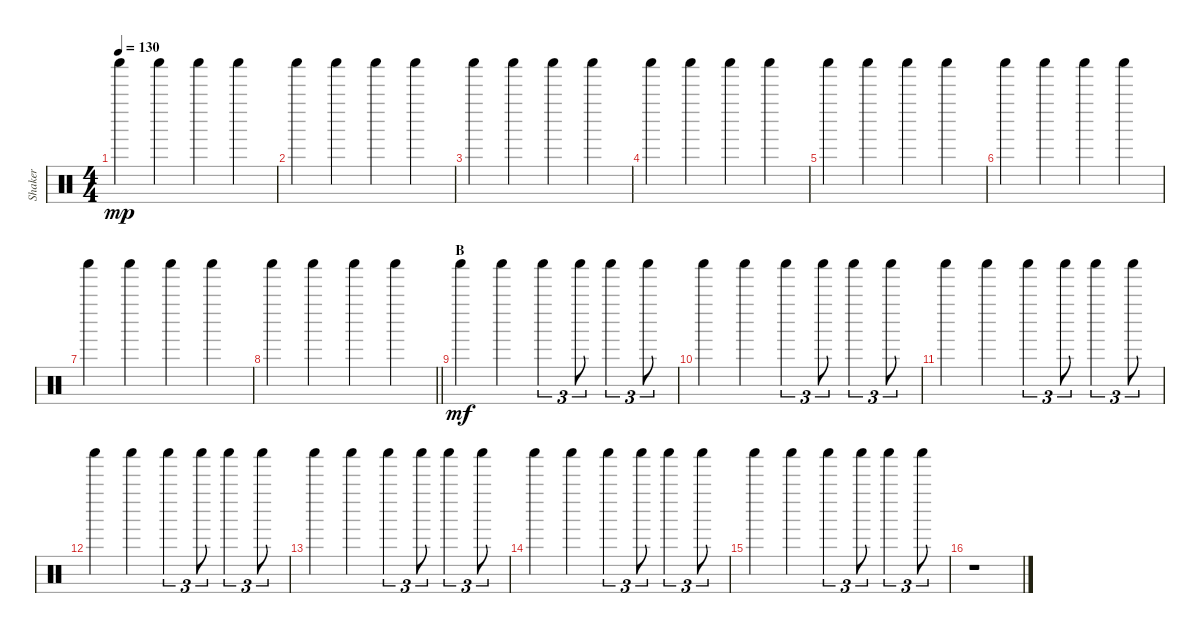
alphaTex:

\track ("Shaker" "Shaker") {instrument percussion}
\staff {score}
\articulation defaults
\ts (4 4)
\tempo 130
\clef neutral
\ks c "Shaker (hit)".4{dy mp} "Shaker (hit)".4 "Shaker (hit)".4 "Shaker (hit)".4
|
"Shaker (hit)".4 "Shaker (hit)".4 "Shaker (hit)".4 "Shaker (hit)".4 |
"Shaker (hit)".4 "Shaker (hit)".4 "Shaker (hit)".4 "Shaker (hit)".4 |
"Shaker (hit)".4 "Shaker (hit)".4 "Shaker (hit)".4 "Shaker (hit)".4 |
"Shaker (hit)".4 "Shaker (hit)".4 "Shaker (hit)".4 "Shaker (hit)".4 |
"Shaker (hit)".4 "Shaker (hit)".4 "Shaker (hit)".4 "Shaker (hit)".4 |
"Shaker (hit)".4 "Shaker (hit)".4 "Shaker (hit)".4 "Shaker (hit)".4 |
\barLineRight lightlight "Shaker (hit)".4 "Shaker (hit)".4 "Shaker (hit)".4 "Shaker (hit)".4
|
\section ("" "B")
"Shaker (hit)".4{dy mf} "Shaker (hit)".4 "Shaker (hit)".4{tu (3 2)} "Shaker (hit)".8{tu (3 2)} "Shaker (hit)".4{tu (3 2)} "Shaker (hit)".8{tu (3 2)} |
"Shaker (hit)".4 "Shaker (hit)".4 "Shaker (hit)".4{tu (3 2)} "Shaker (hit)".8{tu (3 2)} "Shaker (hit)".4{tu (3 2)} "Shaker (hit)".8{tu (3 2)} |
"Shaker (hit)".4 "Shaker (hit)".4 "Shaker (hit)".4{tu (3 2)} "Shaker (hit)".8{tu (3 2)} "Shaker (hit)".4{tu (3 2)} "Shaker (hit)".8{tu (3 2)} |
"Shaker (hit)".4 "Shaker (hit)".4 "Shaker (hit)".4{tu (3 2)} "Shaker (hit)".8{tu (3 2)} "Shaker (hit)".4{tu (3 2)} "Shaker (hit)".8{tu (3 2)} |
"Shaker (hit)".4 "Shaker (hit)".4 "Shaker (hit)".4{tu (3 2)} "Shaker (hit)".8{tu (3 2)} "Shaker (hit)".4{tu (3 2)} "Shaker (hit)".8{tu (3 2)} |
"Shaker (hit)".4 "Shaker (hit)".4 "Shaker (hit)".4{tu (3 2)} "Shaker (hit)".8{tu (3 2)} "Shaker (hit)".4{tu (3 2)} "Shaker (hit)".8{tu (3 2)} |
"Shaker (hit)".4 "Shaker (hit)".4 "Shaker (hit)".4{tu (3 2)} "Shaker (hit)".8{tu (3 2)} "Shaker (hit)".4{tu (3 2)} "Shaker (hit)".8{tu (3 2)} |
r.1
